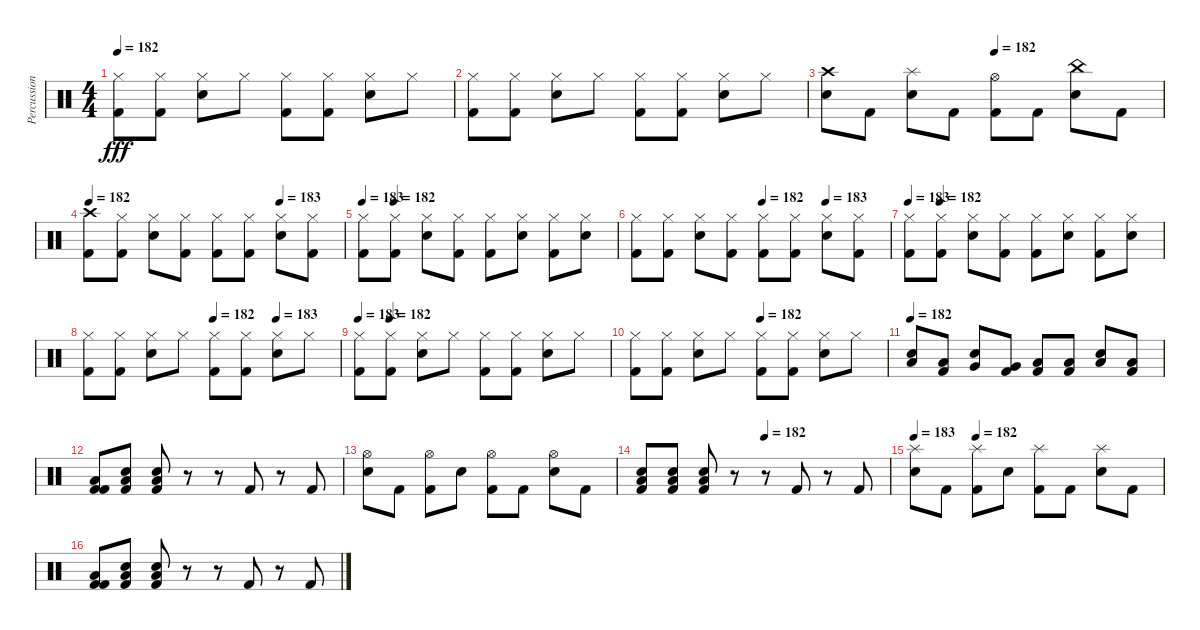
\track ("Percussion" "Percussion") {instrument percussion}
\staff {score}
\articulation defaults
\ts (4 4)
\tempo 182
\clef neutral
\ks c
("Hi-Hat (closed)" "Kick (hit) 2").8{dy fff} ("Hi-Hat (closed)" "Kick (hit) 2").8 ("Hi-Hat (closed)" "Snare (hit) 2").8 "Hi-Hat (closed)".8 ("Hi-Hat (closed)" "Kick (hit) 2").8 ("Hi-Hat (closed)" "Kick (hit) 2").8 ("Hi-Hat (closed)" "Snare (hit) 2").8 "Hi-Hat (closed)".8 |
("Hi-Hat (closed)" "Kick (hit) 2").8 ("Hi-Hat (closed)" "Kick (hit) 2").8 ("Hi-Hat (closed)" "Snare (hit) 2").8 "Hi-Hat (closed)".8 ("Hi-Hat (closed)" "Kick (hit) 2").8 ("Hi-Hat (closed)" "Kick (hit) 2").8 ("Hi-Hat (closed)" "Snare (hit) 2").8 "Hi-Hat (closed)".8 |
\tempo (182 0.5)
("Crash high (hit)" "Snare (hit) 2").8 "Kick (hit) 2".8 ("Splash (hit)" "Snare (hit) 2").8 "Kick (hit) 2".8 ("Hi-Hat (open)" "Kick (hit) 2").8 "Kick (hit) 2".8 ("China (hit)" "Snare (hit) 2").8 "Kick (hit) 2".8 |
\tempo 182
\tempo (183 0.75)
("Crash high (hit)" "Kick (hit) 2").8 ("Hi-Hat (closed)" "Kick (hit) 2").8 ("Hi-Hat (closed)" "Snare (hit) 2").8 ("Hi-Hat (closed)" "Kick (hit) 2").8 ("Hi-Hat (closed)" "Kick (hit) 2").8 ("Hi-Hat (closed)" "Kick (hit) 2").8 ("Hi-Hat (closed)" "Snare (hit) 2").8 ("Hi-Hat (closed)" "Kick (hit) 2").8 |
\tempo 183
\tempo (182 0.125)
("Hi-Hat (closed)" "Kick (hit) 2").8 ("Hi-Hat (closed)" "Kick (hit) 2").8 ("Hi-Hat (closed)" "Snare (hit) 2").8 ("Hi-Hat (closed)" "Kick (hit) 2").8 ("Hi-Hat (closed)" "Kick (hit) 2").8 ("Hi-Hat (closed)" "Snare (hit) 2").8 ("Hi-Hat (closed)" "Kick (hit) 2").8 ("Hi-Hat (closed)" "Snare (hit) 2").8 |
\tempo (182 0.5)
\tempo (183 0.75)
("Hi-Hat (closed)" "Kick (hit) 2").8 ("Hi-Hat (closed)" "Kick (hit) 2").8 ("Hi-Hat (closed)" "Snare (hit) 2").8 ("Hi-Hat (closed)" "Kick (hit) 2").8 ("Hi-Hat (closed)" "Kick (hit) 2").8 ("Hi-Hat (closed)" "Kick (hit) 2").8 ("Hi-Hat (closed)" "Snare (hit) 2").8 ("Hi-Hat (closed)" "Kick (hit) 2").8 |
\tempo 183
\tempo (182 0.125)
("Hi-Hat (closed)" "Kick (hit) 2").8 ("Hi-Hat (closed)" "Kick (hit) 2").8 ("Hi-Hat (closed)" "Snare (hit) 2").8 ("Hi-Hat (closed)" "Kick (hit) 2").8 ("Hi-Hat (closed)" "Kick (hit) 2").8 ("Hi-Hat (closed)" "Snare (hit) 2").8 ("Hi-Hat (closed)" "Kick (hit) 2").8 ("Hi-Hat (closed)" "Snare (hit) 2").8 |
\tempo (182 0.5)
\tempo (183 0.75)
("Hi-Hat (closed)" "Kick (hit) 2").8 ("Hi-Hat (closed)" "Kick (hit) 2").8 ("Hi-Hat (closed)" "Snare (hit) 2").8 "Hi-Hat (closed)".8 ("Hi-Hat (closed)" "Kick (hit) 2").8 ("Hi-Hat (closed)" "Kick (hit) 2").8 ("Hi-Hat (closed)" "Snare (hit) 2").8 "Hi-Hat (closed)".8 |
\tempo 183
\tempo (182 0.125)
("Hi-Hat (closed)" "Kick (hit) 2").8 ("Hi-Hat (closed)" "Kick (hit) 2").8 ("Hi-Hat (closed)" "Snare (hit) 2").8 "Hi-Hat (closed)".8 ("Hi-Hat (closed)" "Kick (hit) 2").8 ("Hi-Hat (closed)" "Kick (hit) 2").8 ("Hi-Hat (closed)" "Snare (hit) 2").8 "Hi-Hat (closed)".8 |
\tempo (182 0.5)
("Hi-Hat (closed)" "Kick (hit) 2").8 ("Hi-Hat (closed)" "Kick (hit) 2").8 ("Hi-Hat (closed)" "Snare (hit) 2").8 "Hi-Hat (closed)".8 ("Hi-Hat (closed)" "Kick (hit) 2").8 ("Hi-Hat (closed)" "Kick (hit) 2").8 ("Hi-Hat (closed)" "Snare (hit) 2").8 "Hi-Hat (closed)".8 |
\tempo 182
("Low Tom (hit)" "Snare (hit) 2").8 ("Low Tom (hit)" "Kick (hit) 2").8 ("Very Low Tom (hit)" "Snare (hit) 2").8 ("Very Low Tom (hit)" "Kick (hit) 2").8 ("Low Tom (hit)" "Kick (hit) 2").8 ("Low Tom (hit)" "Kick (hit) 2").8 ("Low Floor Tom (hit)" "Snare (hit) 2").8 ("Low Floor Tom (hit)" "Kick (hit) 2").8 |
("Kick (hit) 2" "Low Floor Tom (hit)" "Kick (hit) 2").8 ("Snare (hit) 2" "Low Floor Tom (hit)" "Kick (hit) 2").8 ("Snare (hit) 2" "Low Floor Tom (hit)" "Kick (hit) 2").8 r.8 r.8 "Kick (hit) 2".8 r.8 "Kick (hit) 2".8 |
("Hi-Hat (open)" "Snare (hit) 2").8 "Kick (hit) 2".8 ("Hi-Hat (open)" "Kick (hit) 2").8 "Snare (hit) 2".8 ("Hi-Hat (open)" "Kick (hit) 2").8 "Kick (hit) 2".8 ("Hi-Hat (open)" "Snare (hit) 2").8 "Kick (hit) 2".8 |
\tempo (182 0.5)
("Snare (hit) 2" "Low Floor Tom (hit)" "Kick (hit) 2").8 ("Snare (hit) 2" "Low Floor Tom (hit)" "Kick (hit) 2").8 ("Snare (hit) 2" "Low Floor Tom (hit)" "Kick (hit) 2").8 r.8 r.8 "Kick (hit) 2".8 r.8 "Kick (hit) 2".8 |
\tempo 183
\tempo (182 0.25)
("Splash (hit)" "Snare (hit) 2").8 "Kick (hit) 2".8 ("Splash (hit)" "Kick (hit) 2").8 "Snare (hit) 2".8 ("Splash (hit)" "Kick (hit) 2").8 "Kick (hit) 2".8 ("Splash (hit)" "Snare (hit) 2").8 "Kick (hit) 2".8 |
("Kick (hit) 2" "Low Floor Tom (hit)" "Kick (hit) 2").8 ("Snare (hit) 2" "Low Floor Tom (hit)" "Kick (hit) 2").8 ("Snare (hit) 2" "Low Floor Tom (hit)" "Kick (hit) 2").8 r.8 r.8 "Kick (hit) 2".8 r.8 "Kick (hit) 2".8
